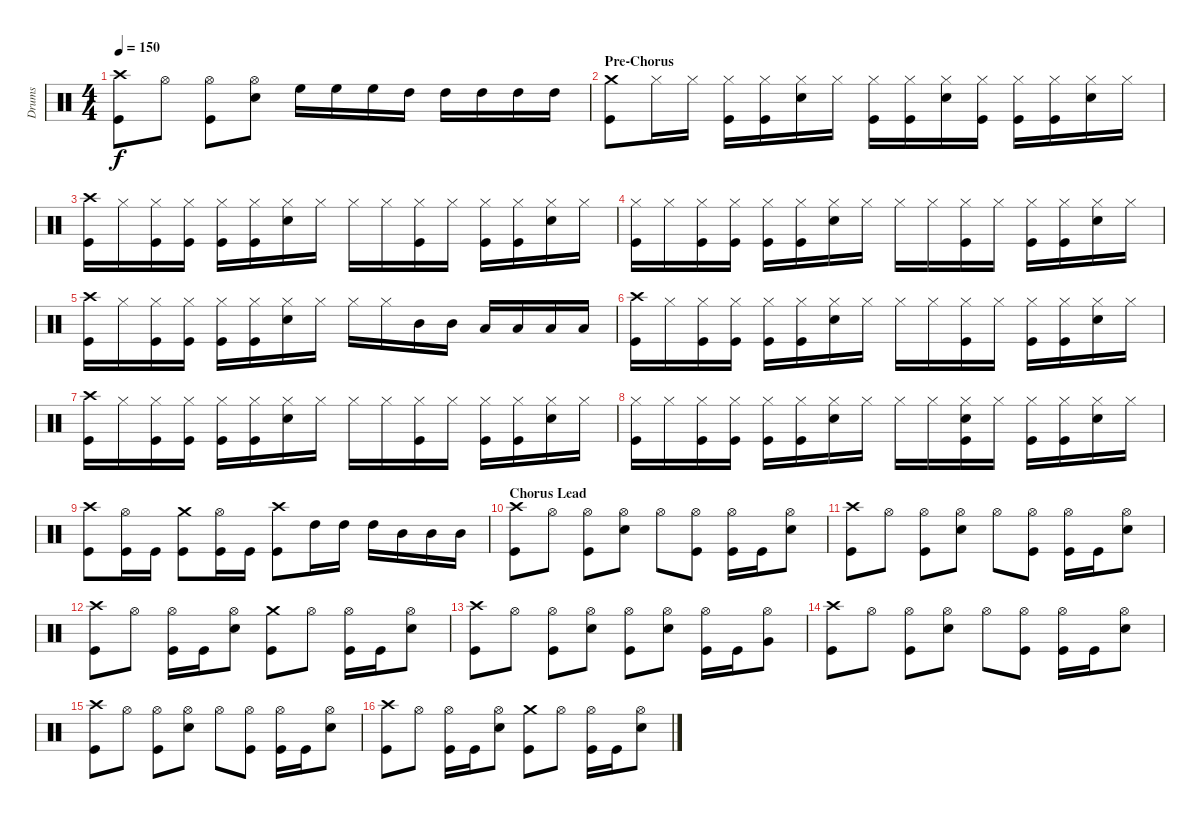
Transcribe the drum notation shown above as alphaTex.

\track ("Drums" "Drums") {instrument percussion}
\staff {score}
\articulation defaults
\ts (4 4)
\tempo 150
\clef neutral
\ks c
("Crash high (hit)" "Kick (hit)").8{dy f} "Hi-Hat (open)".8 ("Hi-Hat (open)" "Kick (hit)").8 ("Hi-Hat (open)" "Electric Snare (hit)").8 "High Floor Tom (hit)".16 "High Floor Tom (hit)".16 "High Floor Tom (hit)".16 "High Tom (hit)".16 "High Tom (hit)".16 "High Tom (hit)".16 "High Tom (hit)".16 "High Tom (hit)".16 |
\section ("" "Pre-Chorus")
("Crash medium (hit)" "Kick (hit)").8 "Hi-Hat (closed)".16 "Hi-Hat (closed)".16 ("Hi-Hat (closed)" "Kick (hit)").16 ("Hi-Hat (closed)" "Kick (hit)").16 ("Hi-Hat (closed)" "Electric Snare (hit)").16 "Hi-Hat (closed)".16 ("Hi-Hat (closed)" "Kick (hit)").16 ("Hi-Hat (closed)" "Kick (hit)").16 ("Hi-Hat (closed)" "Electric Snare (hit)").16 ("Hi-Hat (closed)" "Kick (hit)").16 ("Hi-Hat (closed)" "Kick (hit)").16 ("Hi-Hat (closed)" "Kick (hit)").16 ("Hi-Hat (closed)" "Electric Snare (hit)").16 "Hi-Hat (closed)".16 |
("Crash high (hit)" "Kick (hit)").16 "Hi-Hat (closed)".16 ("Hi-Hat (closed)" "Kick (hit)").16 ("Hi-Hat (closed)" "Kick (hit)").16 ("Hi-Hat (closed)" "Kick (hit)").16 ("Hi-Hat (closed)" "Kick (hit)").16 ("Hi-Hat (closed)" "Electric Snare (hit)").16 "Hi-Hat (closed)".16 "Hi-Hat (closed)".16 "Hi-Hat (closed)".16 ("Hi-Hat (closed)" "Kick (hit)").16 "Hi-Hat (closed)".16 ("Hi-Hat (closed)" "Kick (hit)").16 ("Hi-Hat (closed)" "Kick (hit)").16 ("Hi-Hat (closed)" "Electric Snare (hit)").16 "Hi-Hat (closed)".16 |
("Hi-Hat (closed)" "Kick (hit)").16 "Hi-Hat (closed)".16 ("Hi-Hat (closed)" "Kick (hit)").16 ("Hi-Hat (closed)" "Kick (hit)").16 ("Hi-Hat (closed)" "Kick (hit)").16 ("Hi-Hat (closed)" "Kick (hit)").16 ("Hi-Hat (closed)" "Electric Snare (hit)").16 "Hi-Hat (closed)".16 "Hi-Hat (closed)".16 "Hi-Hat (closed)".16 ("Hi-Hat (closed)" "Kick (hit)").16 "Hi-Hat (closed)".16 ("Hi-Hat (closed)" "Kick (hit)").16 ("Hi-Hat (closed)" "Kick (hit)").16 ("Hi-Hat (closed)" "Electric Snare (hit)").16 "Hi-Hat (closed)".16 |
("Crash high (hit)" "Kick (hit)").16 "Hi-Hat (closed)".16 ("Hi-Hat (closed)" "Kick (hit)").16 ("Hi-Hat (closed)" "Kick (hit)").16 ("Hi-Hat (closed)" "Kick (hit)").16 ("Hi-Hat (closed)" "Kick (hit)").16 ("Hi-Hat (closed)" "Electric Snare (hit)").16 "Hi-Hat (closed)".16 "Hi-Hat (closed)".16 "Hi-Hat (closed)".16 "Mid Tom (hit)".16 "Mid Tom (hit)".16 "Low Tom (hit)".16 "Low Tom (hit)".16 "Low Tom (hit)".16 "Low Tom (hit)".16 |
("Crash high (hit)" "Kick (hit)").16 "Hi-Hat (closed)".16 ("Hi-Hat (closed)" "Kick (hit)").16 ("Hi-Hat (closed)" "Kick (hit)").16 ("Hi-Hat (closed)" "Kick (hit)").16 ("Hi-Hat (closed)" "Kick (hit)").16 ("Hi-Hat (closed)" "Electric Snare (hit)").16 "Hi-Hat (closed)".16 "Hi-Hat (closed)".16 "Hi-Hat (closed)".16 ("Hi-Hat (closed)" "Kick (hit)").16 "Hi-Hat (closed)".16 ("Hi-Hat (closed)" "Kick (hit)").16 ("Hi-Hat (closed)" "Kick (hit)").16 ("Hi-Hat (closed)" "Electric Snare (hit)").16 "Hi-Hat (closed)".16 |
("Crash high (hit)" "Kick (hit)").16 "Hi-Hat (closed)".16 ("Hi-Hat (closed)" "Kick (hit)").16 ("Hi-Hat (closed)" "Kick (hit)").16 ("Hi-Hat (closed)" "Kick (hit)").16 ("Hi-Hat (closed)" "Kick (hit)").16 ("Hi-Hat (closed)" "Electric Snare (hit)").16 "Hi-Hat (closed)".16 "Hi-Hat (closed)".16 "Hi-Hat (closed)".16 ("Hi-Hat (closed)" "Kick (hit)").16 "Hi-Hat (closed)".16 ("Hi-Hat (closed)" "Kick (hit)").16 ("Hi-Hat (closed)" "Kick (hit)").16 ("Hi-Hat (closed)" "Electric Snare (hit)").16 "Hi-Hat (closed)".16 |
("Hi-Hat (closed)" "Kick (hit)").16 "Hi-Hat (closed)".16 ("Hi-Hat (closed)" "Kick (hit)").16 ("Hi-Hat (closed)" "Kick (hit)").16 ("Hi-Hat (closed)" "Kick (hit)").16 ("Hi-Hat (closed)" "Kick (hit)").16 ("Hi-Hat (closed)" "Electric Snare (hit)").16 "Hi-Hat (closed)".16 "Hi-Hat (closed)".16 "Hi-Hat (closed)".16 ("Hi-Hat (closed)" "Electric Snare (hit)" "Kick (hit)").16 "Hi-Hat (closed)".16 ("Hi-Hat (closed)" "Kick (hit)").16 ("Hi-Hat (closed)" "Kick (hit)").16 ("Hi-Hat (closed)" "Electric Snare (hit)").16 "Hi-Hat (closed)".16 |
("Crash high (hit)" "Kick (hit)").8 ("Hi-Hat (open)" "Kick (hit)").16 "Kick (hit)".16 ("Crash medium (hit)" "Kick (hit)").8 ("Hi-Hat (open)" "Kick (hit)").16 "Kick (hit)".16 ("Crash high (hit)" "Kick (hit)").8 "High Tom (hit)".16 "High Tom (hit)".16 "High Tom (hit)".16 "Mid Tom (hit)".16 "Mid Tom (hit)".16 "Mid Tom (hit)".16 |
\section ("" "Chorus Lead")
("Crash high (hit)" "Kick (hit)").8 "Hi-Hat (open)".8 ("Hi-Hat (open)" "Kick (hit)").8 ("Hi-Hat (open)" "Electric Snare (hit)").8 "Hi-Hat (open)".8 ("Hi-Hat (open)" "Kick (hit)").8 ("Hi-Hat (open)" "Kick (hit)").16 "Kick (hit)".16 ("Hi-Hat (open)" "Electric Snare (hit)").8 |
("Crash high (hit)" "Kick (hit)").8 "Hi-Hat (open)".8 ("Hi-Hat (open)" "Kick (hit)").8 ("Hi-Hat (open)" "Electric Snare (hit)").8 "Hi-Hat (open)".8 ("Hi-Hat (open)" "Kick (hit)").8 ("Hi-Hat (open)" "Kick (hit)").16 "Kick (hit)".16 ("Hi-Hat (open)" "Electric Snare (hit)").8 |
("Crash high (hit)" "Kick (hit)").8 "Hi-Hat (open)".8 ("Hi-Hat (open)" "Kick (hit)").16 "Kick (hit)".16 ("Hi-Hat (open)" "Electric Snare (hit)").8 ("Crash medium (hit)" "Kick (hit)").8 "Hi-Hat (open)".8 ("Hi-Hat (open)" "Kick (hit)").16 "Kick (hit)".16 ("Hi-Hat (open)" "Electric Snare (hit)").8 |
("Crash high (hit)" "Kick (hit)").8 "Hi-Hat (open)".8 ("Hi-Hat (open)" "Kick (hit)").8 ("Hi-Hat (open)" "Electric Snare (hit)").8 ("Hi-Hat (open)" "Kick (hit)").8 ("Hi-Hat (open)" "Electric Snare (hit)").8 ("Hi-Hat (open)" "Kick (hit)").16 "Kick (hit)".16 ("Hi-Hat (open)" "Very Low Tom (hit)").8 |
("Crash high (hit)" "Kick (hit)").8 "Hi-Hat (open)".8 ("Hi-Hat (open)" "Kick (hit)").8 ("Hi-Hat (open)" "Electric Snare (hit)").8 "Hi-Hat (open)".8 ("Hi-Hat (open)" "Kick (hit)").8 ("Hi-Hat (open)" "Kick (hit)").16 "Kick (hit)".16 ("Hi-Hat (open)" "Electric Snare (hit)").8 |
("Crash high (hit)" "Kick (hit)").8 "Hi-Hat (open)".8 ("Hi-Hat (open)" "Kick (hit)").8 ("Hi-Hat (open)" "Electric Snare (hit)").8 "Hi-Hat (open)".8 ("Hi-Hat (open)" "Kick (hit)").8 ("Hi-Hat (open)" "Kick (hit)").16 "Kick (hit)".16 ("Hi-Hat (open)" "Electric Snare (hit)").8 |
("Crash high (hit)" "Kick (hit)").8 "Hi-Hat (open)".8 ("Hi-Hat (open)" "Kick (hit)").16 "Kick (hit)".16 ("Hi-Hat (open)" "Electric Snare (hit)").8 ("Crash medium (hit)" "Kick (hit)").8 "Hi-Hat (open)".8 ("Hi-Hat (open)" "Kick (hit)").16 "Kick (hit)".16 ("Hi-Hat (open)" "Electric Snare (hit)").8
